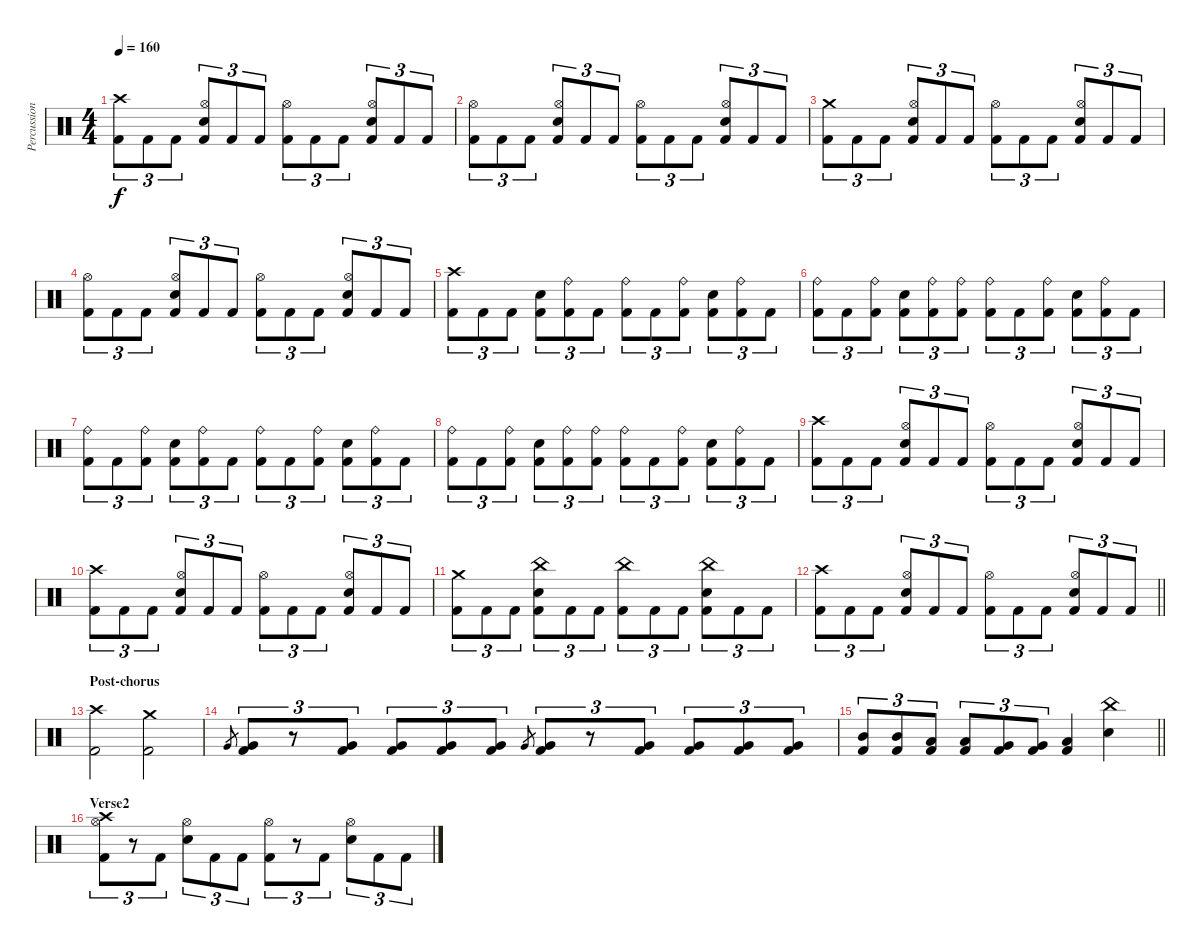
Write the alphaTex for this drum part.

\track ("Percussion" "Percussion") {instrument percussion}
\staff {score}
\articulation defaults
\ts (4 4)
\tempo 160
\clef neutral
\ks c
("Crash high (hit)" "Kick (hit) 2").8{tu (3 2) dy f} "Kick (hit) 2".8{tu (3 2)} "Kick (hit) 2".8{tu (3 2)} ("Hi-Hat (open)" "Snare (hit) 2" "Kick (hit) 2").8{tu (3 2)} "Kick (hit) 2".8{tu (3 2)} "Kick (hit) 2".8{tu (3 2)} ("Hi-Hat (open)" "Kick (hit) 2").8{tu (3 2)} "Kick (hit) 2".8{tu (3 2)} "Kick (hit) 2".8{tu (3 2)} ("Hi-Hat (open)" "Snare (hit) 2" "Kick (hit) 2").8{tu (3 2)} "Kick (hit) 2".8{tu (3 2)} "Kick (hit) 2".8{tu (3 2)} |
("Hi-Hat (open)" "Kick (hit) 2").8{tu (3 2)} "Kick (hit) 2".8{tu (3 2)} "Kick (hit) 2".8{tu (3 2)} ("Hi-Hat (open)" "Snare (hit) 2" "Kick (hit) 2").8{tu (3 2)} "Kick (hit) 2".8{tu (3 2)} "Kick (hit) 2".8{tu (3 2)} ("Hi-Hat (open)" "Kick (hit) 2").8{tu (3 2)} "Kick (hit) 2".8{tu (3 2)} "Kick (hit) 2".8{tu (3 2)} ("Hi-Hat (open)" "Snare (hit) 2" "Kick (hit) 2").8{tu (3 2)} "Kick (hit) 2".8{tu (3 2)} "Kick (hit) 2".8{tu (3 2)} |
("Crash medium (hit)" "Kick (hit) 2").8{tu (3 2)} "Kick (hit) 2".8{tu (3 2)} "Kick (hit) 2".8{tu (3 2)} ("Hi-Hat (open)" "Snare (hit) 2" "Kick (hit) 2").8{tu (3 2)} "Kick (hit) 2".8{tu (3 2)} "Kick (hit) 2".8{tu (3 2)} ("Hi-Hat (open)" "Kick (hit) 2").8{tu (3 2)} "Kick (hit) 2".8{tu (3 2)} "Kick (hit) 2".8{tu (3 2)} ("Hi-Hat (open)" "Snare (hit) 2" "Kick (hit) 2").8{tu (3 2)} "Kick (hit) 2".8{tu (3 2)} "Kick (hit) 2".8{tu (3 2)} |
("Hi-Hat (open)" "Kick (hit) 2").8{tu (3 2)} "Kick (hit) 2".8{tu (3 2)} "Kick (hit) 2".8{tu (3 2)} ("Hi-Hat (open)" "Snare (hit) 2" "Kick (hit) 2").8{tu (3 2)} "Kick (hit) 2".8{tu (3 2)} "Kick (hit) 2".8{tu (3 2)} ("Hi-Hat (open)" "Kick (hit) 2").8{tu (3 2)} "Kick (hit) 2".8{tu (3 2)} "Kick (hit) 2".8{tu (3 2)} ("Hi-Hat (open)" "Snare (hit) 2" "Kick (hit) 2").8{tu (3 2)} "Kick (hit) 2".8{tu (3 2)} "Kick (hit) 2".8{tu (3 2)} |
("Crash high (hit)" "Kick (hit) 2").8{tu (3 2)} "Kick (hit) 2".8{tu (3 2)} "Kick (hit) 2".8{tu (3 2)} ("Snare (hit) 2" "Kick (hit) 2").8{tu (3 2)} ("Ride (bell)" "Kick (hit) 2").8{tu (3 2)} "Kick (hit) 2".8{tu (3 2)} ("Ride (bell)" "Kick (hit) 2").8{tu (3 2)} "Kick (hit) 2".8{tu (3 2)} ("Ride (bell)" "Kick (hit) 2").8{tu (3 2)} ("Snare (hit) 2" "Kick (hit) 2").8{tu (3 2)} ("Ride (bell)" "Kick (hit) 2").8{tu (3 2)} "Kick (hit) 2".8{tu (3 2)} |
("Ride (bell)" "Kick (hit) 2").8{tu (3 2)} "Kick (hit) 2".8{tu (3 2)} ("Ride (bell)" "Kick (hit) 2").8{tu (3 2)} ("Snare (hit) 2" "Kick (hit) 2").8{tu (3 2)} ("Ride (bell)" "Kick (hit) 2").8{tu (3 2)} ("Ride (bell)" "Kick (hit) 2").8{tu (3 2)} ("Ride (bell)" "Kick (hit) 2").8{tu (3 2)} "Kick (hit) 2".8{tu (3 2)} ("Ride (bell)" "Kick (hit) 2").8{tu (3 2)} ("Snare (hit) 2" "Kick (hit) 2").8{tu (3 2)} ("Ride (bell)" "Kick (hit) 2").8{tu (3 2)} "Kick (hit) 2".8{tu (3 2)} |
("Ride (bell)" "Kick (hit) 2").8{tu (3 2)} "Kick (hit) 2".8{tu (3 2)} ("Ride (bell)" "Kick (hit) 2").8{tu (3 2)} ("Snare (hit) 2" "Kick (hit) 2").8{tu (3 2)} ("Ride (bell)" "Kick (hit) 2").8{tu (3 2)} "Kick (hit) 2".8{tu (3 2)} ("Ride (bell)" "Kick (hit) 2").8{tu (3 2)} "Kick (hit) 2".8{tu (3 2)} ("Ride (bell)" "Kick (hit) 2").8{tu (3 2)} ("Snare (hit) 2" "Kick (hit) 2").8{tu (3 2)} ("Ride (bell)" "Kick (hit) 2").8{tu (3 2)} "Kick (hit) 2".8{tu (3 2)} |
("Ride (bell)" "Kick (hit) 2").8{tu (3 2)} "Kick (hit) 2".8{tu (3 2)} ("Ride (bell)" "Kick (hit) 2").8{tu (3 2)} ("Snare (hit) 2" "Kick (hit) 2").8{tu (3 2)} ("Ride (bell)" "Kick (hit) 2").8{tu (3 2)} ("Ride (bell)" "Kick (hit) 2").8{tu (3 2)} ("Ride (bell)" "Kick (hit) 2").8{tu (3 2)} "Kick (hit) 2".8{tu (3 2)} ("Ride (bell)" "Kick (hit) 2").8{tu (3 2)} ("Snare (hit) 2" "Kick (hit) 2").8{tu (3 2)} ("Ride (bell)" "Kick (hit) 2").8{tu (3 2)} "Kick (hit) 2".8{tu (3 2)} |
("Crash high (hit)" "Kick (hit) 2").8{tu (3 2)} "Kick (hit) 2".8{tu (3 2)} "Kick (hit) 2".8{tu (3 2)} ("Hi-Hat (open)" "Snare (hit) 2" "Kick (hit) 2").8{tu (3 2)} "Kick (hit) 2".8{tu (3 2)} "Kick (hit) 2".8{tu (3 2)} ("Hi-Hat (open)" "Kick (hit) 2").8{tu (3 2)} "Kick (hit) 2".8{tu (3 2)} "Kick (hit) 2".8{tu (3 2)} ("Hi-Hat (open)" "Snare (hit) 2" "Kick (hit) 2").8{tu (3 2)} "Kick (hit) 2".8{tu (3 2)} "Kick (hit) 2".8{tu (3 2)} |
("Crash high (hit)" "Kick (hit) 2").8{tu (3 2)} "Kick (hit) 2".8{tu (3 2)} "Kick (hit) 2".8{tu (3 2)} ("Hi-Hat (open)" "Snare (hit) 2" "Kick (hit) 2").8{tu (3 2)} "Kick (hit) 2".8{tu (3 2)} "Kick (hit) 2".8{tu (3 2)} ("Hi-Hat (open)" "Kick (hit) 2").8{tu (3 2)} "Kick (hit) 2".8{tu (3 2)} "Kick (hit) 2".8{tu (3 2)} ("Hi-Hat (open)" "Snare (hit) 2" "Kick (hit) 2").8{tu (3 2)} "Kick (hit) 2".8{tu (3 2)} "Kick (hit) 2".8{tu (3 2)} |
("Crash medium (hit)" "Kick (hit) 2").8{tu (3 2)} "Kick (hit) 2".8{tu (3 2)} "Kick (hit) 2".8{tu (3 2)} ("China (hit)" "Snare (hit) 2" "Kick (hit) 2").8{tu (3 2)} "Kick (hit) 2".8{tu (3 2)} "Kick (hit) 2".8{tu (3 2)} ("China (hit)" "Kick (hit) 2").8{tu (3 2)} "Kick (hit) 2".8{tu (3 2)} "Kick (hit) 2".8{tu (3 2)} ("China (hit)" "Snare (hit) 2" "Kick (hit) 2").8{tu (3 2)} "Kick (hit) 2".8{tu (3 2)} "Kick (hit) 2".8{tu (3 2)} |
\barLineRight lightlight
("Crash high (hit)" "Kick (hit) 2").8{tu (3 2)} "Kick (hit) 2".8{tu (3 2)} "Kick (hit) 2".8{tu (3 2)} ("Hi-Hat (open)" "Snare (hit) 2" "Kick (hit) 2").8{tu (3 2)} "Kick (hit) 2".8{tu (3 2)} "Kick (hit) 2".8{tu (3 2)} ("Hi-Hat (open)" "Kick (hit) 2").8{tu (3 2)} "Kick (hit) 2".8{tu (3 2)} "Kick (hit) 2".8{tu (3 2)} ("Hi-Hat (open)" "Snare (hit) 2" "Kick (hit) 2").8{tu (3 2)} "Kick (hit) 2".8{tu (3 2)} "Kick (hit) 2".8{tu (3 2)} |
\section ("" "Post-chorus")
("Crash high (hit)" "Kick (hit) 2").2 ("Crash medium (hit)" "Kick (hit) 2").2 |
"Very Low Tom (hit)".8{gr} ("Very Low Tom (hit)" "Kick (hit) 2").8{tu (3 2)} r.8{tu (3 2)} ("Very Low Tom (hit)" "Kick (hit) 2").8{tu (3 2)} ("Very Low Tom (hit)" "Kick (hit) 2").8{tu (3 2)} ("Very Low Tom (hit)" "Kick (hit) 2").8{tu (3 2)} ("Very Low Tom (hit)" "Kick (hit) 2").8{tu (3 2)} "Very Low Tom (hit)".8{gr} ("Very Low Tom (hit)" "Kick (hit) 2").8{tu (3 2)} r.8{tu (3 2)} ("Very Low Tom (hit)" "Kick (hit) 2").8{tu (3 2)} ("Very Low Tom (hit)" "Kick (hit) 2").8{tu (3 2)} ("Very Low Tom (hit)" "Kick (hit) 2").8{tu (3 2)} ("Very Low Tom (hit)" "Kick (hit) 2").8{tu (3 2)} |
\barLineRight lightlight
("Mid Tom (hit)" "Kick (hit) 2").8{tu (3 2)} ("Mid Tom (hit)" "Kick (hit) 2").8{tu (3 2)} ("Low Tom (hit)" "Kick (hit) 2").8{tu (3 2)} ("Low Tom (hit)" "Kick (hit) 2").8{tu (3 2)} ("Very Low Tom (hit)" "Kick (hit) 2").8{tu (3 2)} ("Very Low Tom (hit)" "Kick (hit) 2").8{tu (3 2)} ("Low Floor Tom (hit)" "Kick (hit) 2").4 ("China (hit)" "Snare (hit) 2").4 |
\section ("" "Verse2")
("Crash high (hit)" "Hi-Hat (open)" "Kick (hit) 2").8{tu (3 2)} r.8{tu (3 2)} "Kick (hit) 2".8{tu (3 2)} ("Hi-Hat (open)" "Snare (hit) 2").8{tu (3 2)} "Kick (hit) 2".8{tu (3 2)} "Kick (hit) 2".8{tu (3 2)} ("Hi-Hat (open)" "Kick (hit) 2").8{tu (3 2)} r.8{tu (3 2)} "Kick (hit) 2".8{tu (3 2)} ("Hi-Hat (open)" "Snare (hit) 2").8{tu (3 2)} "Kick (hit) 2".8{tu (3 2)} "Kick (hit) 2".8{tu (3 2)}
